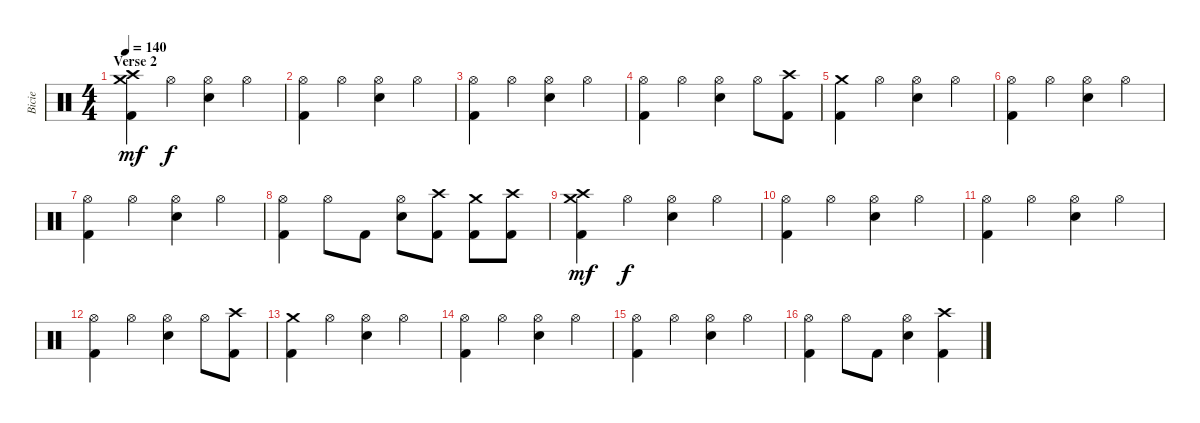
\track ("Bicie" "Bicie") {instrument percussion}
\staff {score}
\articulation defaults
\ts (4 4)
\section ("" "Verse 2")
\tempo 140
\clef neutral
\ks c
("Crash high (hit)" "Crash medium (hit)" "Kick (hit) 2").4{dy mf} "Hi-Hat (open)".4{dy f} ("Hi-Hat (open)" "Snare (hit) 2").4 "Hi-Hat (open)".4 |
("Hi-Hat (open)" "Kick (hit) 2").4 "Hi-Hat (open)".4 ("Hi-Hat (open)" "Snare (hit) 2").4 "Hi-Hat (open)".4 |
("Hi-Hat (open)" "Kick (hit) 2").4 "Hi-Hat (open)".4 ("Hi-Hat (open)" "Snare (hit) 2").4 "Hi-Hat (open)".4 |
("Hi-Hat (open)" "Kick (hit) 2").4 "Hi-Hat (open)".4 ("Hi-Hat (open)" "Snare (hit) 2").4 "Hi-Hat (open)".8 ("Crash high (hit)" "Kick (hit) 2").8 |
("Crash medium (hit)" "Kick (hit) 2").4 "Hi-Hat (open)".4 ("Hi-Hat (open)" "Snare (hit) 2").4 "Hi-Hat (open)".4 |
("Hi-Hat (open)" "Kick (hit) 2").4 "Hi-Hat (open)".4 ("Hi-Hat (open)" "Snare (hit) 2").4 "Hi-Hat (open)".4 |
("Hi-Hat (open)" "Kick (hit) 2").4 "Hi-Hat (open)".4 ("Hi-Hat (open)" "Snare (hit) 2").4 "Hi-Hat (open)".4 |
("Hi-Hat (open)" "Kick (hit) 2").4 "Hi-Hat (open)".8 "Kick (hit) 2".8 ("Hi-Hat (open)" "Snare (hit) 2").8 ("Crash high (hit)" "Kick (hit) 2").8 ("Crash medium (hit)" "Kick (hit) 2").8 ("Crash high (hit)" "Kick (hit) 2").8 |
("Crash high (hit)" "Crash medium (hit)" "Kick (hit) 2").4{dy mf} "Hi-Hat (open)".4{dy f} ("Hi-Hat (open)" "Snare (hit) 2").4 "Hi-Hat (open)".4 |
("Hi-Hat (open)" "Kick (hit) 2").4 "Hi-Hat (open)".4 ("Hi-Hat (open)" "Snare (hit) 2").4 "Hi-Hat (open)".4 |
("Hi-Hat (open)" "Kick (hit) 2").4 "Hi-Hat (open)".4 ("Hi-Hat (open)" "Snare (hit) 2").4 "Hi-Hat (open)".4 |
("Hi-Hat (open)" "Kick (hit) 2").4 "Hi-Hat (open)".4 ("Hi-Hat (open)" "Snare (hit) 2").4 "Hi-Hat (open)".8 ("Crash high (hit)" "Kick (hit) 2").8 |
("Crash medium (hit)" "Kick (hit) 2").4 "Hi-Hat (open)".4 ("Hi-Hat (open)" "Snare (hit) 2").4 "Hi-Hat (open)".4 |
("Hi-Hat (open)" "Kick (hit) 2").4 "Hi-Hat (open)".4 ("Hi-Hat (open)" "Snare (hit) 2").4 "Hi-Hat (open)".4 |
("Hi-Hat (open)" "Kick (hit) 2").4 "Hi-Hat (open)".4 ("Hi-Hat (open)" "Snare (hit) 2").4 "Hi-Hat (open)".4 |
("Hi-Hat (open)" "Kick (hit) 2").4 "Hi-Hat (open)".8 "Kick (hit) 2".8 ("Hi-Hat (open)" "Snare (hit) 2").4 ("Crash high (hit)" "Kick (hit) 2").4
